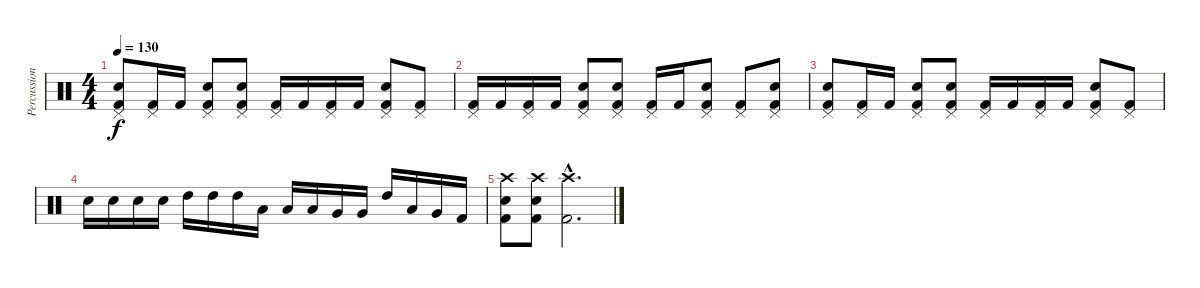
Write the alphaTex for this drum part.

\track ("Percussion" "Percussion") {instrument percussion}
\staff {score}
\articulation defaults
\ts (4 4)
\tempo 130
\clef neutral
\ks c
("Pedal Hi-Hat (hit)" "Snare (hit) 2" "Kick (hit) 2").8{dy f} ("Pedal Hi-Hat (hit)" "Kick (hit) 2").16 "Kick (hit) 2".16 ("Pedal Hi-Hat (hit)" "Snare (hit) 2" "Kick (hit) 2").8 ("Pedal Hi-Hat (hit)" "Snare (hit) 2" "Kick (hit) 2").8 ("Pedal Hi-Hat (hit)" "Kick (hit) 2").16 "Kick (hit) 2".16 ("Pedal Hi-Hat (hit)" "Kick (hit) 2").16 "Kick (hit) 2".16 ("Pedal Hi-Hat (hit)" "Snare (hit) 2" "Kick (hit) 2").8 ("Pedal Hi-Hat (hit)" "Kick (hit) 2").8 |
("Pedal Hi-Hat (hit)" "Kick (hit) 2").16 "Kick (hit) 2".16 ("Pedal Hi-Hat (hit)" "Kick (hit) 2").16 "Kick (hit) 2".16 ("Pedal Hi-Hat (hit)" "Snare (hit) 2" "Kick (hit) 2").8 ("Pedal Hi-Hat (hit)" "Snare (hit) 2" "Kick (hit) 2").8 ("Pedal Hi-Hat (hit)" "Kick (hit) 2").16 "Kick (hit) 2".16 ("Pedal Hi-Hat (hit)" "Snare (hit) 2" "Kick (hit) 2").8 ("Pedal Hi-Hat (hit)" "Kick (hit) 2").8 ("Pedal Hi-Hat (hit)" "Snare (hit) 2" "Kick (hit) 2").8 |
("Pedal Hi-Hat (hit)" "Snare (hit) 2" "Kick (hit) 2").8 ("Pedal Hi-Hat (hit)" "Kick (hit) 2").16 "Kick (hit) 2".16 ("Pedal Hi-Hat (hit)" "Snare (hit) 2" "Kick (hit) 2").8 ("Pedal Hi-Hat (hit)" "Snare (hit) 2" "Kick (hit) 2").8 ("Pedal Hi-Hat (hit)" "Kick (hit) 2").16 "Kick (hit) 2".16 ("Pedal Hi-Hat (hit)" "Kick (hit) 2").16 "Kick (hit) 2".16 ("Pedal Hi-Hat (hit)" "Snare (hit) 2" "Kick (hit) 2").8 ("Pedal Hi-Hat (hit)" "Kick (hit) 2").8 |
"Snare (hit) 2".16 "Snare (hit) 2".16 "Snare (hit) 2".16 "Snare (hit) 2".16 "High Tom (hit)".16 "High Tom (hit)".16 "High Tom (hit)".16 "Low Tom (hit)".16 "Low Tom (hit)".16 "Low Tom (hit)".16 "Very Low Tom (hit)".16 "Very Low Tom (hit)".16 "High Tom (hit)".16 "Low Tom (hit)".16 "Very Low Tom (hit)".16 "Kick (hit) 2".16 |
("Crash high (hit)" "Snare (hit) 2" "Kick (hit) 2").8 ("Crash high (hit)" "Snare (hit) 2" "Kick (hit) 2").8 ("Crash high (hit)"{hac} "Kick (hit) 2"{hac}).2{d}
